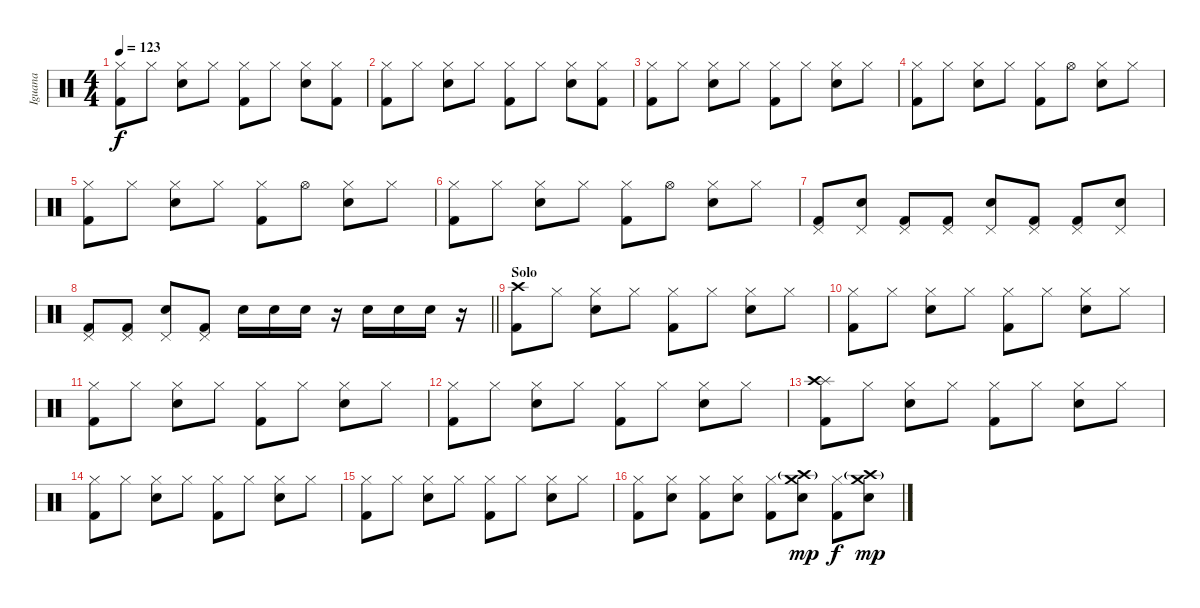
\track ("Iguana" "Iguana") {instrument percussion}
\staff {score}
\articulation defaults
\ts (4 4)
\tempo 123
\clef neutral
\ks c
("Hi-Hat (closed)" "Kick (hit) 2").8{dy f} "Hi-Hat (closed)".8 ("Hi-Hat (closed)" "Snare (hit) 2").8 "Hi-Hat (closed)".8 ("Hi-Hat (closed)" "Kick (hit) 2").8 "Hi-Hat (closed)".8 ("Hi-Hat (closed)" "Snare (hit) 2").8 ("Hi-Hat (closed)" "Kick (hit) 2").8 |
("Hi-Hat (closed)" "Kick (hit) 2").8 "Hi-Hat (closed)".8 ("Hi-Hat (closed)" "Snare (hit) 2").8 "Hi-Hat (closed)".8 ("Hi-Hat (closed)" "Kick (hit) 2").8 "Hi-Hat (closed)".8 ("Hi-Hat (closed)" "Snare (hit) 2").8 ("Hi-Hat (closed)" "Kick (hit) 2").8 |
("Hi-Hat (closed)" "Kick (hit) 2").8 "Hi-Hat (closed)".8 ("Hi-Hat (closed)" "Snare (hit) 2").8 "Hi-Hat (closed)".8 ("Hi-Hat (closed)" "Kick (hit) 2").8 "Hi-Hat (closed)".8 ("Hi-Hat (closed)" "Snare (hit) 2").8 "Hi-Hat (closed)".8 |
("Hi-Hat (closed)" "Kick (hit) 2").8 "Hi-Hat (closed)".8 ("Hi-Hat (closed)" "Snare (hit) 2").8 "Hi-Hat (closed)".8 ("Hi-Hat (closed)" "Kick (hit) 2").8 "Hi-Hat (open)".8 ("Hi-Hat (closed)" "Snare (hit) 2").8 "Hi-Hat (closed)".8 |
("Hi-Hat (closed)" "Kick (hit) 2").8 "Hi-Hat (closed)".8 ("Hi-Hat (closed)" "Snare (hit) 2").8 "Hi-Hat (closed)".8 ("Hi-Hat (closed)" "Kick (hit) 2").8 "Hi-Hat (open)".8 ("Hi-Hat (closed)" "Snare (hit) 2").8 "Hi-Hat (closed)".8 |
("Hi-Hat (closed)" "Kick (hit) 2").8 "Hi-Hat (closed)".8 ("Hi-Hat (closed)" "Snare (hit) 2").8 "Hi-Hat (closed)".8 ("Hi-Hat (closed)" "Kick (hit) 2").8 "Hi-Hat (open)".8 ("Hi-Hat (closed)" "Snare (hit) 2").8 "Hi-Hat (closed)".8 |
("Pedal Hi-Hat (hit)" "Kick (hit) 2").8 ("Pedal Hi-Hat (hit)" "Snare (hit) 2").8 ("Pedal Hi-Hat (hit)" "Kick (hit) 2").8 ("Pedal Hi-Hat (hit)" "Kick (hit) 2").8 ("Pedal Hi-Hat (hit)" "Snare (hit) 2").8 ("Pedal Hi-Hat (hit)" "Kick (hit) 2").8 ("Pedal Hi-Hat (hit)" "Kick (hit) 2").8 ("Pedal Hi-Hat (hit)" "Snare (hit) 2").8 |
\barLineRight lightlight
("Pedal Hi-Hat (hit)" "Kick (hit) 2").8 ("Pedal Hi-Hat (hit)" "Kick (hit) 2").8 ("Pedal Hi-Hat (hit)" "Snare (hit) 2").8 ("Pedal Hi-Hat (hit)" "Kick (hit) 2").8 "Snare (hit) 2".16 "Snare (hit) 2".16 "Snare (hit) 2".16 r.16 "Snare (hit) 2".16 "Snare (hit) 2".16 "Snare (hit) 2".16 r.16 |
\section ("" "Solo")
("Crash high (hit)" "Kick (hit) 2").8{volume 13} "Hi-Hat (closed)".8 ("Hi-Hat (closed)" "Snare (hit) 2").8 "Hi-Hat (closed)".8 ("Hi-Hat (closed)" "Kick (hit) 2").8 "Hi-Hat (closed)".8 ("Hi-Hat (closed)" "Snare (hit) 2").8 "Hi-Hat (closed)".8 |
("Hi-Hat (closed)" "Kick (hit) 2").8 "Hi-Hat (closed)".8 ("Hi-Hat (closed)" "Snare (hit) 2").8 "Hi-Hat (closed)".8 ("Hi-Hat (closed)" "Kick (hit) 2").8 "Hi-Hat (closed)".8 ("Hi-Hat (closed)" "Snare (hit) 2").8 "Hi-Hat (closed)".8 |
("Hi-Hat (closed)" "Kick (hit) 2").8 "Hi-Hat (closed)".8 ("Hi-Hat (closed)" "Snare (hit) 2").8 "Hi-Hat (closed)".8 ("Hi-Hat (closed)" "Kick (hit) 2").8 "Hi-Hat (closed)".8 ("Hi-Hat (closed)" "Snare (hit) 2").8 "Hi-Hat (closed)".8 |
("Hi-Hat (closed)" "Kick (hit) 2").8 "Hi-Hat (closed)".8 ("Hi-Hat (closed)" "Snare (hit) 2").8 "Hi-Hat (closed)".8 ("Hi-Hat (closed)" "Kick (hit) 2").8 "Hi-Hat (closed)".8 ("Hi-Hat (closed)" "Snare (hit) 2").8 "Hi-Hat (closed)".8 |
("Splash (hit)" "Crash high (hit)" "Kick (hit) 2").8 "Hi-Hat (closed)".8 ("Hi-Hat (closed)" "Snare (hit) 2").8 "Hi-Hat (closed)".8 ("Hi-Hat (closed)" "Kick (hit) 2").8 "Hi-Hat (closed)".8 ("Hi-Hat (closed)" "Snare (hit) 2").8 "Hi-Hat (closed)".8 |
("Hi-Hat (closed)" "Kick (hit) 2").8 "Hi-Hat (closed)".8 ("Hi-Hat (closed)" "Snare (hit) 2").8 "Hi-Hat (closed)".8 ("Hi-Hat (closed)" "Kick (hit) 2").8 "Hi-Hat (closed)".8 ("Hi-Hat (closed)" "Snare (hit) 2").8 "Hi-Hat (closed)".8 |
("Hi-Hat (closed)" "Kick (hit) 2").8 "Hi-Hat (closed)".8 ("Hi-Hat (closed)" "Snare (hit) 2").8 "Hi-Hat (closed)".8 ("Hi-Hat (closed)" "Kick (hit) 2").8 "Hi-Hat (closed)".8 ("Hi-Hat (closed)" "Snare (hit) 2").8 "Hi-Hat (closed)".8 |
("Hi-Hat (closed)" "Kick (hit) 2").8 ("Hi-Hat (closed)" "Snare (hit) 2").8 ("Hi-Hat (closed)" "Kick (hit) 2").8 ("Hi-Hat (closed)" "Snare (hit) 2").8 ("Hi-Hat (closed)" "Kick (hit) 2").8 ("Crash medium (hit)" "Crash high (hit)"{g} "Snare (hit) 2").8{dy mp} ("Hi-Hat (closed)" "Kick (hit) 2").8{dy f} ("Crash medium (hit)" "Crash high (hit)"{g} "Snare (hit) 2").8{dy mp}
